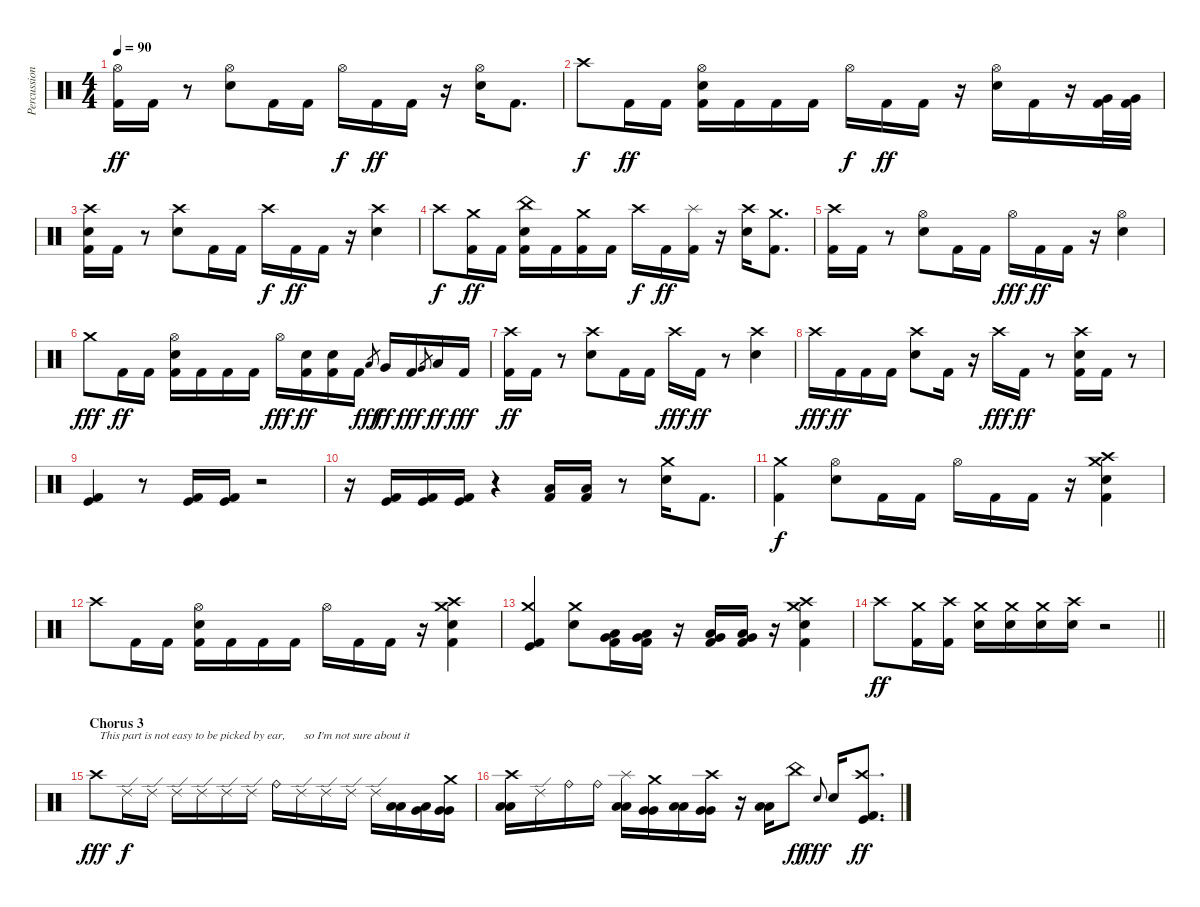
\track ("Percussion" "Percussion") {instrument percussion}
\staff {score}
\articulation defaults
\ts (4 4)
\tempo 90
\clef neutral
\ks c
("Hi-Hat (open)" "Kick (hit) 2").16{dy ff} "Kick (hit) 2".16 r.8 ("Hi-Hat (open)" "Electric Snare (hit)").8 "Kick (hit) 2".16 "Kick (hit) 2".16 "Hi-Hat (open)".16{dy f} "Kick (hit) 2".16{dy ff} "Kick (hit) 2".16 r.16 ("Hi-Hat (open)" "Electric Snare (hit)").16 "Kick (hit) 2".8{d} |
"Crash high (hit)".8{dy f} "Kick (hit) 2".16{dy ff} "Kick (hit) 2".16 ("Hi-Hat (open)" "Electric Snare (hit)" "Kick (hit) 2").16 "Kick (hit) 2".16 "Kick (hit) 2".16 "Kick (hit) 2".16 "Hi-Hat (open)".16{dy f} "Kick (hit) 2".16{dy ff} "Kick (hit) 2".16 r.16 ("Hi-Hat (open)" "Electric Snare (hit)").16 "Kick (hit) 2".16 r.16 ("Very Low Tom (hit)" "Kick (hit) 2").32 ("Very Low Tom (hit)" "Kick (hit) 2").32 |
("Crash high (hit)" "Electric Snare (hit)" "Kick (hit) 2").16 "Kick (hit) 2".16 r.8 ("Crash high (hit)" "Electric Snare (hit)").8 "Kick (hit) 2".16 "Kick (hit) 2".16 "Crash high (hit)".16{dy f} "Kick (hit) 2".16{dy ff} "Kick (hit) 2".16 r.16 ("Crash high (hit)" "Electric Snare (hit)").4 |
"Crash high (hit)".8{dy f} ("Crash medium (hit)" "Kick (hit) 2").16{dy ff} "Kick (hit) 2".16 ("China (hit)" "Electric Snare (hit)" "Kick (hit) 2").16 "Kick (hit) 2".16 ("Crash medium (hit)" "Kick (hit) 2").16 "Kick (hit) 2".16 "Crash high (hit)".16{dy f} "Kick (hit) 2".16{dy ff} ("Splash (hit)" "Kick (hit) 2").16 r.16 ("Crash high (hit)" "Electric Snare (hit)").16 ("Crash medium (hit)" "Kick (hit) 2").8{d} |
("Crash high (hit)" "Kick (hit) 2").16 "Kick (hit) 2".16 r.8 ("Hi-Hat (open)" "Electric Snare (hit)").8 "Kick (hit) 2".16 "Kick (hit) 2".16 "Hi-Hat (open)".16{dy fff} "Kick (hit) 2".16{dy ff} "Kick (hit) 2".16 r.16 ("Hi-Hat (open)" "Electric Snare (hit)").4 |
"Crash medium (hit)".8{dy fff} "Kick (hit) 2".16{dy ff} "Kick (hit) 2".16 ("Hi-Hat (open)" "Electric Snare (hit)" "Kick (hit) 2").16 "Kick (hit) 2".16 "Kick (hit) 2".16 "Kick (hit) 2".16 "Hi-Hat (open)".16{dy fff} ("Electric Snare (hit)" "Kick (hit) 2").16{dy ff} ("Electric Snare (hit)" "Kick (hit) 2").16 "Kick (hit) 2".16 "Low Tom (hit)".8{gr dy fff} "Very Low Tom (hit)".16{dy ff} "Kick (hit) 2".16{dy fff} "Very Low Tom (hit)".8{gr} "Low Floor Tom (hit)".16{dy ff} "Kick (hit) 2".16{dy fff} |
("Crash high (hit)" "Kick (hit) 2").16{dy ff} "Kick (hit) 2".16 r.8 ("Crash high (hit)" "Electric Snare (hit)").8 "Kick (hit) 2".16 "Kick (hit) 2".16 "Crash high (hit)".16{dy fff} "Kick (hit) 2".16{dy ff} r.8 ("Crash high (hit)" "Electric Snare (hit)").4 |
"Crash high (hit)".16{dy fff} "Kick (hit) 2".16{dy ff} "Kick (hit) 2".16 "Kick (hit) 2".16 ("Crash high (hit)" "Electric Snare (hit)").8 "Kick (hit) 2".16 r.16 "Crash high (hit)".16{dy fff} "Kick (hit) 2".16{dy ff} r.8 ("Crash high (hit)" "Electric Snare (hit)" "Kick (hit) 2").16 "Kick (hit) 2".16 r.8 |
("Kick (hit)" "Kick (hit) 2").4 r.8 ("Kick (hit)" "Kick (hit) 2").16 ("Kick (hit)" "Kick (hit) 2").16 r.2 |
r.16 ("Kick (hit)" "Kick (hit) 2").16 ("Kick (hit)" "Kick (hit) 2").16 ("Kick (hit)" "Kick (hit) 2").16 r.4 ("Low Tom (hit)" "Kick (hit) 2").16 ("Low Tom (hit)" "Kick (hit) 2").16 r.8 ("Crash medium (hit)" "Electric Snare (hit)").16 "Kick (hit) 2".8{d} |
("Crash medium (hit)" "Kick (hit) 2").4{dy f} ("Hi-Hat (open)" "Electric Snare (hit)").8 "Kick (hit) 2".16 "Kick (hit) 2".16 "Hi-Hat (open)".16 "Kick (hit) 2".16 "Kick (hit) 2".16 r.16 ("Crash high (hit)" "Crash medium (hit)" "Electric Snare (hit)" "Kick (hit) 2").4 |
"Crash high (hit)".8 "Kick (hit) 2".16 "Kick (hit) 2".16 ("Hi-Hat (open)" "Electric Snare (hit)" "Kick (hit) 2").16 "Kick (hit) 2".16 "Kick (hit) 2".16 "Kick (hit) 2".16 "Hi-Hat (open)".16 "Kick (hit) 2".16 "Kick (hit) 2".16 r.16 ("Crash high (hit)" "Crash medium (hit)" "Electric Snare (hit)" "Kick (hit) 2").4 |
("Crash medium (hit)" "Kick (hit)" "Kick (hit) 2").4 ("Crash medium (hit)" "Electric Snare (hit)").8 ("Very Low Tom (hit)" "Low Floor Tom (hit)" "Kick (hit) 2").16 ("Very Low Tom (hit)" "Low Floor Tom (hit)" "Kick (hit) 2").16 r.16 ("Very Low Tom (hit)" "Low Floor Tom (hit)" "Kick (hit) 2").16 ("Very Low Tom (hit)" "Low Floor Tom (hit)" "Kick (hit) 2").16 r.16 ("Crash high (hit)" "Crash medium (hit)" "Electric Snare (hit)" "Kick (hit) 2").4 |
\barLineRight lightlight "Crash high (hit)".8{dy ff}
("Crash medium (hit)" "Kick (hit) 2").16 ("Crash high (hit)" "Kick (hit) 2").16 ("Crash medium (hit)" "Electric Snare (hit)").16 ("Crash medium (hit)" "Electric Snare (hit)").16 ("Crash medium (hit)" "Electric Snare (hit)").16 ("Crash high (hit)" "Electric Snare (hit)").16 r.2 |
\section ("" "Chorus 3")
"Crash high (hit)".8{txt " This part is not easy to be picked by ear, " dy fff} "Ride (edge) 2".16{dy f} "Ride (edge) 2".16 "Ride (edge) 2".16 "Ride (edge) 2".16 "Ride (edge) 2".16 "Ride (edge) 2".16 "Ride (bell)".16 "Ride (edge) 2".16{txt " so I'm not sure about it"} "Ride (edge) 2".16 "Ride (edge) 2".16 "Ride (edge) 2".16 ("Low Tom (hit)" "Low Tom (hit)").16 ("Low Tom (hit)" "Very Low Tom (hit)").16 ("Crash medium (hit)" "Very Low Tom (hit)" "Very Low Tom (hit)").16 |
("Crash high (hit)" "Low Floor Tom (hit)" "Low Floor Tom (hit)").16 "Ride (edge) 2".16 "Ride (bell)".16 "Ride (bell)".16 ("Splash (hit)" "Low Floor Tom (hit)" "Low Floor Tom (hit)").16 ("Crash medium (hit)" "Very Low Tom (hit)" "Very Low Tom (hit)").16 ("Low Tom (hit)" "Low Tom (hit)").16 ("Crash high (hit)" "Very Low Tom (hit)" "Very Low Tom (hit)").16 r.16 ("Low Floor Tom (hit)" "Low Floor Tom (hit)").16 "China (hit)".8{dy ff} "Electric Snare (hit)".8{gr onbeat dy fff} "Electric Snare (hit)".16 ("Crash high (hit)" "Kick (hit)" "Kick (hit) 2").8{d dy ff}
